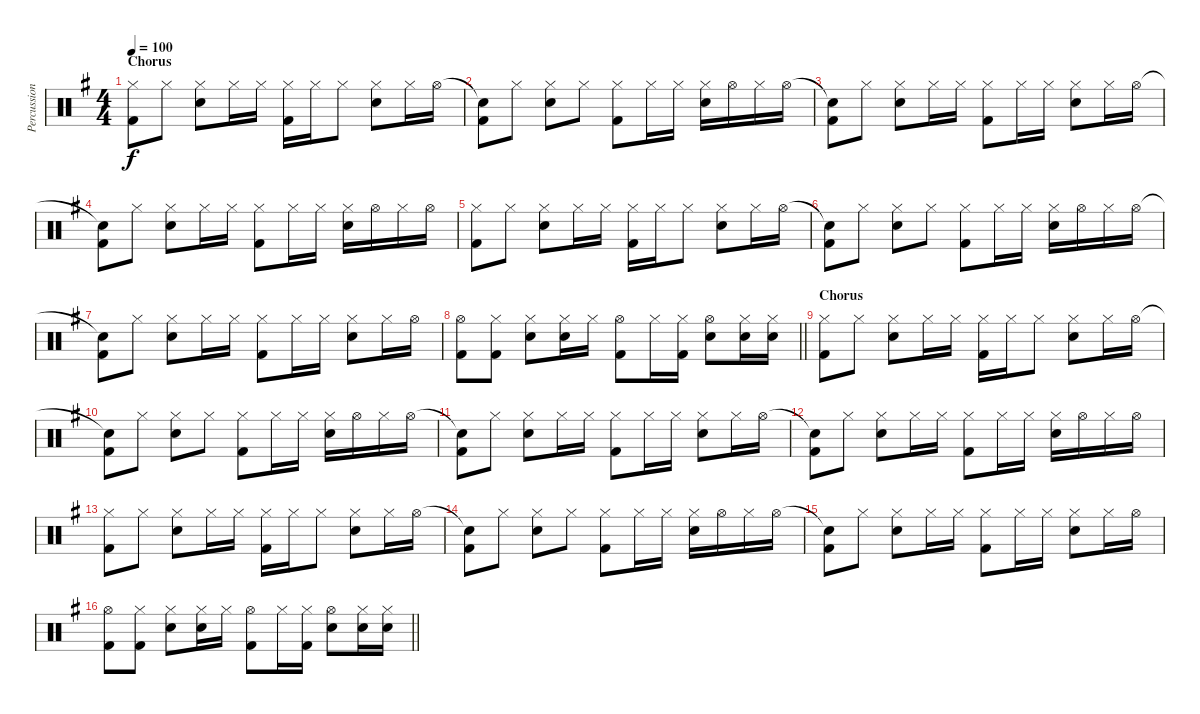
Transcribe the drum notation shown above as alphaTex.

\track ("Percussion" "Percussion") {instrument percussion}
\staff {score}
\articulation defaults
\ts (4 4)
\section ("" "Chorus")
\tempo 100
\clef neutral
\ks g
("Hi-Hat (closed)" "Kick (hit) 2").8{dy f} "Hi-Hat (closed)".8 ("Hi-Hat (closed)" "Electric Snare (hit)").8 "Hi-Hat (closed)".16 "Hi-Hat (closed)".16 ("Hi-Hat (closed)" "Kick (hit) 2").16 "Hi-Hat (closed)".16 "Hi-Hat (closed)".8 ("Hi-Hat (closed)" "Electric Snare (hit)").8 "Hi-Hat (closed)".16 "Hi-Hat (open)".16 |
("Snare (hit)"{t} "Kick (hit) 2").8 "Hi-Hat (closed)".8 ("Hi-Hat (closed)" "Electric Snare (hit)").8 "Hi-Hat (closed)".8 ("Hi-Hat (closed)" "Kick (hit) 2").8 "Hi-Hat (closed)".16 "Hi-Hat (closed)".16 ("Hi-Hat (closed)" "Electric Snare (hit)").16 "Hi-Hat (open)".16 "Hi-Hat (closed)".16 "Hi-Hat (open)".16 |
("Snare (hit)"{t} "Kick (hit) 2").8 "Hi-Hat (closed)".8 ("Hi-Hat (closed)" "Electric Snare (hit)").8 "Hi-Hat (closed)".16 "Hi-Hat (closed)".16 ("Hi-Hat (closed)" "Kick (hit) 2").8 "Hi-Hat (closed)".16 "Hi-Hat (closed)".16 ("Hi-Hat (closed)" "Electric Snare (hit)").8 "Hi-Hat (closed)".16 "Hi-Hat (open)".16 |
("Snare (hit)"{t} "Kick (hit) 2").8 "Hi-Hat (closed)".8 ("Hi-Hat (closed)" "Electric Snare (hit)").8 "Hi-Hat (closed)".16 "Hi-Hat (closed)".16 ("Hi-Hat (closed)" "Kick (hit) 2").8 "Hi-Hat (closed)".16 "Hi-Hat (closed)".16 ("Hi-Hat (closed)" "Electric Snare (hit)").16 "Hi-Hat (open)".16 "Hi-Hat (closed)".16 "Hi-Hat (open)".16 |
("Hi-Hat (closed)" "Kick (hit) 2").8 "Hi-Hat (closed)".8 ("Hi-Hat (closed)" "Electric Snare (hit)").8 "Hi-Hat (closed)".16 "Hi-Hat (closed)".16 ("Hi-Hat (closed)" "Kick (hit) 2").16 "Hi-Hat (closed)".16 "Hi-Hat (closed)".8 ("Hi-Hat (closed)" "Electric Snare (hit)").8 "Hi-Hat (closed)".16 "Hi-Hat (open)".16 |
("Snare (hit)"{t} "Kick (hit) 2").8 "Hi-Hat (closed)".8 ("Hi-Hat (closed)" "Electric Snare (hit)").8 "Hi-Hat (closed)".8 ("Hi-Hat (closed)" "Kick (hit) 2").8 "Hi-Hat (closed)".16 "Hi-Hat (closed)".16 ("Hi-Hat (closed)" "Electric Snare (hit)").16 "Hi-Hat (open)".16 "Hi-Hat (closed)".16 "Hi-Hat (open)".16 |
("Snare (hit)"{t} "Kick (hit) 2").8 "Hi-Hat (closed)".8 ("Hi-Hat (closed)" "Electric Snare (hit)").8 "Hi-Hat (closed)".16 "Hi-Hat (closed)".16 ("Hi-Hat (closed)" "Kick (hit) 2").8 "Hi-Hat (closed)".16 "Hi-Hat (closed)".16 ("Hi-Hat (closed)" "Electric Snare (hit)").8 "Hi-Hat (closed)".16 "Hi-Hat (open)".16 |
\barLineRight lightlight
("Hi-Hat (open)" "Kick (hit) 2").8 ("Hi-Hat (closed)" "Kick (hit) 2").8 ("Hi-Hat (closed)" "Electric Snare (hit)").8 ("Hi-Hat (closed)" "Electric Snare (hit)").16 "Hi-Hat (closed)".16 ("Hi-Hat (open)" "Kick (hit) 2").8 "Hi-Hat (closed)".16 ("Hi-Hat (closed)" "Kick (hit) 2").16 ("Hi-Hat (open)" "Electric Snare (hit)").8 ("Hi-Hat (closed)" "Electric Snare (hit)").16 ("Hi-Hat (closed)" "Electric Snare (hit)").16 |
\section ("" "Chorus")
("Hi-Hat (closed)" "Kick (hit) 2").8 "Hi-Hat (closed)".8 ("Hi-Hat (closed)" "Electric Snare (hit)").8 "Hi-Hat (closed)".16 "Hi-Hat (closed)".16 ("Hi-Hat (closed)" "Kick (hit) 2").16 "Hi-Hat (closed)".16 "Hi-Hat (closed)".8 ("Hi-Hat (closed)" "Electric Snare (hit)").8 "Hi-Hat (closed)".16 "Hi-Hat (open)".16 |
("Snare (hit)"{t} "Kick (hit) 2").8 "Hi-Hat (closed)".8 ("Hi-Hat (closed)" "Electric Snare (hit)").8 "Hi-Hat (closed)".8 ("Hi-Hat (closed)" "Kick (hit) 2").8 "Hi-Hat (closed)".16 "Hi-Hat (closed)".16 ("Hi-Hat (closed)" "Electric Snare (hit)").16 "Hi-Hat (open)".16 "Hi-Hat (closed)".16 "Hi-Hat (open)".16 |
("Snare (hit)"{t} "Kick (hit) 2").8 "Hi-Hat (closed)".8 ("Hi-Hat (closed)" "Electric Snare (hit)").8 "Hi-Hat (closed)".16 "Hi-Hat (closed)".16 ("Hi-Hat (closed)" "Kick (hit) 2").8 "Hi-Hat (closed)".16 "Hi-Hat (closed)".16 ("Hi-Hat (closed)" "Electric Snare (hit)").8 "Hi-Hat (closed)".16 "Hi-Hat (open)".16 |
("Snare (hit)"{t} "Kick (hit) 2").8 "Hi-Hat (closed)".8 ("Hi-Hat (closed)" "Electric Snare (hit)").8 "Hi-Hat (closed)".16 "Hi-Hat (closed)".16 ("Hi-Hat (closed)" "Kick (hit) 2").8 "Hi-Hat (closed)".16 "Hi-Hat (closed)".16 ("Hi-Hat (closed)" "Electric Snare (hit)").16 "Hi-Hat (open)".16 "Hi-Hat (closed)".16 "Hi-Hat (open)".16 |
("Hi-Hat (closed)" "Kick (hit) 2").8 "Hi-Hat (closed)".8 ("Hi-Hat (closed)" "Electric Snare (hit)").8 "Hi-Hat (closed)".16 "Hi-Hat (closed)".16 ("Hi-Hat (closed)" "Kick (hit) 2").16 "Hi-Hat (closed)".16 "Hi-Hat (closed)".8 ("Hi-Hat (closed)" "Electric Snare (hit)").8 "Hi-Hat (closed)".16 "Hi-Hat (open)".16 |
("Snare (hit)"{t} "Kick (hit) 2").8 "Hi-Hat (closed)".8 ("Hi-Hat (closed)" "Electric Snare (hit)").8 "Hi-Hat (closed)".8 ("Hi-Hat (closed)" "Kick (hit) 2").8 "Hi-Hat (closed)".16 "Hi-Hat (closed)".16 ("Hi-Hat (closed)" "Electric Snare (hit)").16 "Hi-Hat (open)".16 "Hi-Hat (closed)".16 "Hi-Hat (open)".16 |
("Snare (hit)"{t} "Kick (hit) 2").8 "Hi-Hat (closed)".8 ("Hi-Hat (closed)" "Electric Snare (hit)").8 "Hi-Hat (closed)".16 "Hi-Hat (closed)".16 ("Hi-Hat (closed)" "Kick (hit) 2").8 "Hi-Hat (closed)".16 "Hi-Hat (closed)".16 ("Hi-Hat (closed)" "Electric Snare (hit)").8 "Hi-Hat (closed)".16 "Hi-Hat (open)".16 |
\barLineRight lightlight
("Hi-Hat (open)" "Kick (hit) 2").8 ("Hi-Hat (closed)" "Kick (hit) 2").8 ("Hi-Hat (closed)" "Electric Snare (hit)").8 ("Hi-Hat (closed)" "Electric Snare (hit)").16 "Hi-Hat (closed)".16 ("Hi-Hat (open)" "Kick (hit) 2").8 "Hi-Hat (closed)".16 ("Hi-Hat (closed)" "Kick (hit) 2").16 ("Hi-Hat (open)" "Electric Snare (hit)").8 ("Hi-Hat (closed)" "Electric Snare (hit)").16 ("Hi-Hat (closed)" "Electric Snare (hit)").16
